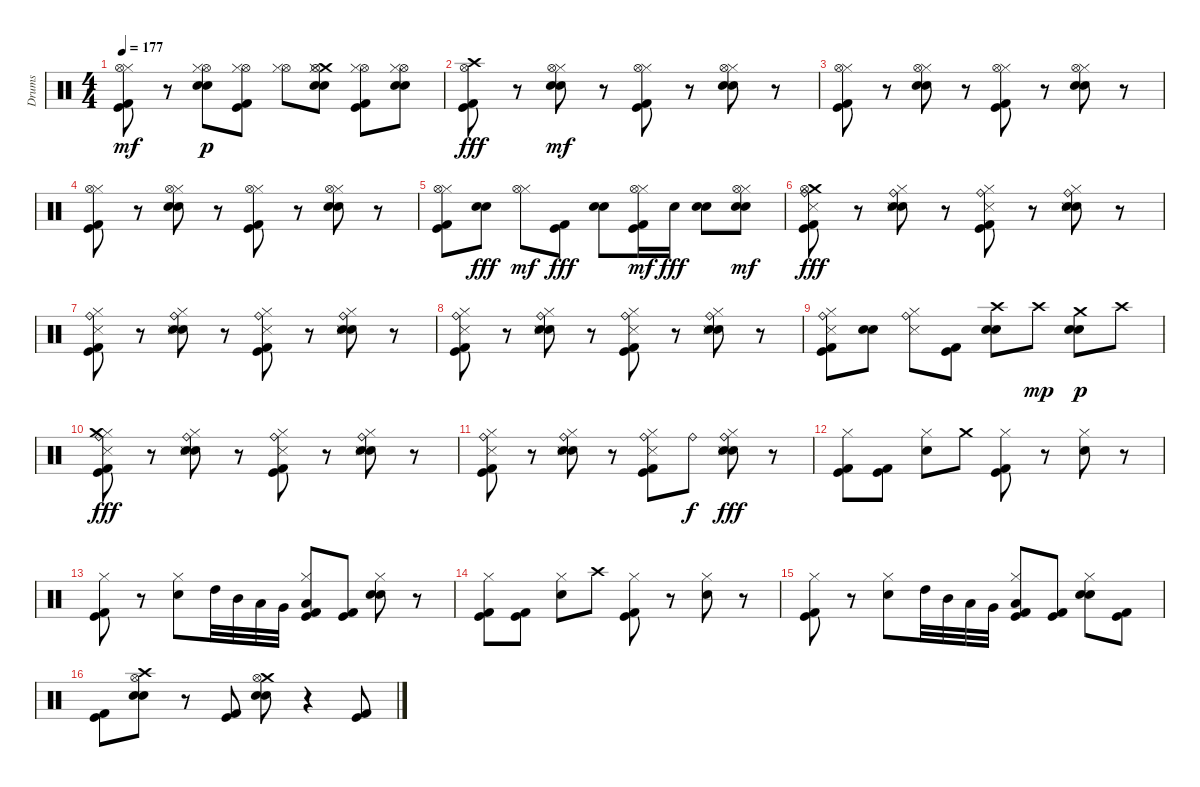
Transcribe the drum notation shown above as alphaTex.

\track ("Drums" "Drums") {instrument percussion}
\staff {score}
\articulation defaults
\ts (4 4)
\tempo 177
\clef neutral
\ks c
("Kick (hit)" "Kick (hit) 2" "Hi-Hat (closed)" "Hi-Hat (open)").8{dy mf} r.8 ("Electric Snare (hit)" "Snare (hit) 2" "Hi-Hat (open)" "Hi-Hat (closed)").8{dy p} ("Kick (hit) 2" "Kick (hit)" "Hi-Hat (open)" "Hi-Hat (closed)").8 ("Hi-Hat (open)" "Hi-Hat (closed)").8 ("Electric Snare (hit)" "Snare (hit) 2" "Crash medium (hit)" "Hi-Hat (open)" "Hi-Hat (closed)").8 ("Kick (hit) 2" "Kick (hit)" "Hi-Hat (open)" "Hi-Hat (closed)").8 ("Electric Snare (hit)" "Snare (hit) 2" "Hi-Hat (open)" "Hi-Hat (closed)").8 |
("Crash high (hit)" "Kick (hit) 2" "Kick (hit)" "Hi-Hat (open)").8{dy fff} r.8 ("Hi-Hat (closed)" "Electric Snare (hit)" "Snare (hit) 2" "Hi-Hat (open)").8{dy mf} r.8 ("Hi-Hat (closed)" "Kick (hit) 2" "Kick (hit)" "Hi-Hat (open)").8 r.8 ("Hi-Hat (closed)" "Electric Snare (hit)" "Snare (hit) 2" "Hi-Hat (open)").8 r.8 |
("Hi-Hat (closed)" "Kick (hit) 2" "Kick (hit)" "Hi-Hat (open)").8 r.8 ("Hi-Hat (closed)" "Electric Snare (hit)" "Snare (hit) 2" "Hi-Hat (open)").8 r.8 ("Hi-Hat (closed)" "Kick (hit) 2" "Kick (hit)" "Hi-Hat (open)").8 r.8 ("Hi-Hat (closed)" "Electric Snare (hit)" "Snare (hit) 2" "Hi-Hat (open)").8 r.8 |
("Hi-Hat (closed)" "Kick (hit) 2" "Kick (hit)" "Hi-Hat (open)").8 r.8 ("Hi-Hat (closed)" "Electric Snare (hit)" "Snare (hit) 2" "Hi-Hat (open)").8 r.8 ("Hi-Hat (closed)" "Kick (hit) 2" "Kick (hit)" "Hi-Hat (open)").8 r.8 ("Hi-Hat (closed)" "Electric Snare (hit)" "Snare (hit) 2" "Hi-Hat (open)").8 r.8 |
("Kick (hit)" "Kick (hit) 2" "Hi-Hat (closed)" "Hi-Hat (open)").8 ("Electric Snare (hit)" "Snare (hit) 2").8{dy fff} ("Hi-Hat (closed)" "Hi-Hat (open)").8{dy mf} ("Kick (hit) 2" "Kick (hit)").8{dy fff} ("Electric Snare (hit)" "Snare (hit) 2").8 ("Kick (hit) 2" "Kick (hit)" "Hi-Hat (closed)" "Hi-Hat (open)").16{dy mf} "Snare (hit) 2".16{dy fff} ("Electric Snare (hit)" "Snare (hit) 2").8 ("Electric Snare (hit)" "Snare (hit) 2" "Hi-Hat (closed)" "Hi-Hat (open)").8{dy mf} |
("Crash medium (hit)" "Kick (hit) 2" "Kick (hit)" "Hi-Hat (open)" "Snare (side stick) 3" "Ride (bell)").8{dy fff} r.8 ("Hi-Hat (closed)" "Electric Snare (hit)" "Snare (hit) 2" "Snare (side stick) 3" "Ride (bell)").8 r.8 ("Hi-Hat (closed)" "Kick (hit) 2" "Kick (hit)" "Snare (side stick) 3" "Ride (bell)").8 r.8 ("Hi-Hat (closed)" "Electric Snare (hit)" "Snare (hit) 2" "Snare (side stick) 3" "Ride (bell)").8 r.8 |
("Hi-Hat (closed)" "Kick (hit) 2" "Kick (hit)" "Snare (side stick) 3" "Ride (bell)").8 r.8 ("Hi-Hat (closed)" "Electric Snare (hit)" "Snare (hit) 2" "Snare (side stick) 3" "Ride (bell)").8 r.8 ("Hi-Hat (closed)" "Kick (hit) 2" "Kick (hit)" "Snare (side stick) 3" "Ride (bell)").8 r.8 ("Hi-Hat (closed)" "Electric Snare (hit)" "Snare (hit) 2" "Snare (side stick) 3" "Ride (bell)").8 r.8 |
("Hi-Hat (closed)" "Kick (hit) 2" "Kick (hit)" "Ride (bell)" "Snare (side stick) 3").8 r.8 ("Hi-Hat (closed)" "Electric Snare (hit)" "Snare (hit) 2" "Ride (bell)" "Snare (side stick) 3").8 r.8 ("Hi-Hat (closed)" "Kick (hit) 2" "Kick (hit)" "Ride (bell)" "Snare (side stick) 3").8 r.8 ("Hi-Hat (closed)" "Electric Snare (hit)" "Snare (hit) 2" "Ride (bell)" "Snare (side stick) 3").8 r.8 |
("Kick (hit) 2" "Kick (hit)" "Ride (bell)" "Hi-Hat (closed)" "Snare (side stick) 3").8 ("Electric Snare (hit)" "Snare (hit) 2").8 ("Ride (bell)" "Hi-Hat (closed)" "Snare (side stick) 3").8 ("Kick (hit) 2" "Kick (hit)").8 ("Electric Snare (hit)" "Snare (hit) 2" "Crash high (hit)").8 "Crash high (hit)".8{dy mp} ("Electric Snare (hit)" "Snare (hit) 2" "Crash medium (hit)").8{dy p} "Crash high (hit)".8 |
("Hi-Hat (closed)" "Kick (hit) 2" "Kick (hit)" "Snare (side stick) 3" "Ride (bell)" "Crash medium (hit)").8{dy fff} r.8 ("Hi-Hat (closed)" "Electric Snare (hit)" "Snare (hit) 2" "Snare (side stick) 3" "Ride (bell)").8 r.8 ("Hi-Hat (closed)" "Kick (hit) 2" "Kick (hit)" "Snare (side stick) 3" "Ride (bell)").8 r.8 ("Hi-Hat (closed)" "Electric Snare (hit)" "Snare (hit) 2" "Snare (side stick) 3" "Ride (bell)").8 r.8 |
("Hi-Hat (closed)" "Kick (hit) 2" "Kick (hit)" "Snare (side stick) 3" "Ride (bell)").8 r.8 ("Hi-Hat (closed)" "Electric Snare (hit)" "Snare (hit) 2" "Snare (side stick) 3" "Ride (bell)").8 r.8 ("Hi-Hat (closed)" "Kick (hit) 2" "Kick (hit)" "Snare (side stick) 3" "Ride (bell)").8 "Ride (bell)".8{dy f} ("Hi-Hat (closed)" "Electric Snare (hit)" "Snare (hit) 2" "Snare (side stick) 3" "Ride (bell)").8{dy fff} r.8 |
("Hi-Hat (closed)" "Kick (hit) 2" "Kick (hit)").8 ("Kick (hit) 2" "Kick (hit)").8 ("Hi-Hat (closed)" "Electric Snare (hit)").8 "Crash medium (hit)".8 ("Hi-Hat (closed)" "Kick (hit) 2" "Kick (hit)").8 r.8 ("Hi-Hat (closed)" "Electric Snare (hit)").8 r.8 |
("Hi-Hat (closed)" "Kick (hit) 2" "Kick (hit)").8 r.8 ("Hi-Hat (closed)" "Electric Snare (hit)").8 "High Tom (hit)".32 "Mid Tom (hit)".32 "Low Tom (hit)".32 "Very Low Tom (hit)".32 ("Hi-Hat (closed)" "Kick (hit) 2" "Kick (hit)" "Low Floor Tom (hit)").8 ("Kick (hit) 2" "Kick (hit)").8 ("Hi-Hat (closed)" "Electric Snare (hit)" "Snare (hit) 2").8 r.8 |
("Hi-Hat (closed)" "Kick (hit) 2" "Kick (hit)").8 ("Kick (hit) 2" "Kick (hit)").8 ("Hi-Hat (closed)" "Electric Snare (hit)").8 "Crash high (hit)".8 ("Hi-Hat (closed)" "Kick (hit) 2" "Kick (hit)").8 r.8 ("Hi-Hat (closed)" "Electric Snare (hit)").8 r.8 |
("Hi-Hat (closed)" "Kick (hit) 2" "Kick (hit)").8 r.8 ("Hi-Hat (closed)" "Electric Snare (hit)").8 "High Tom (hit)".32 "Mid Tom (hit)".32 "Low Tom (hit)".32 "Very Low Tom (hit)".32 ("Hi-Hat (closed)" "Kick (hit) 2" "Kick (hit)" "Low Floor Tom (hit)").8 ("Kick (hit) 2" "Kick (hit)").8 ("Hi-Hat (closed)" "Electric Snare (hit)" "Snare (hit) 2").8 ("Kick (hit) 2" "Kick (hit)").8 |
("Kick (hit) 2" "Kick (hit)").8 ("Crash high (hit)" "Electric Snare (hit)" "Snare (hit) 2" "Hi-Hat (open)").8 r.8 ("Kick (hit) 2" "Kick (hit)").8 ("Crash medium (hit)" "Hi-Hat (open)" "Electric Snare (hit)" "Snare (hit) 2").8 r.4 ("Kick (hit) 2" "Kick (hit)").8
